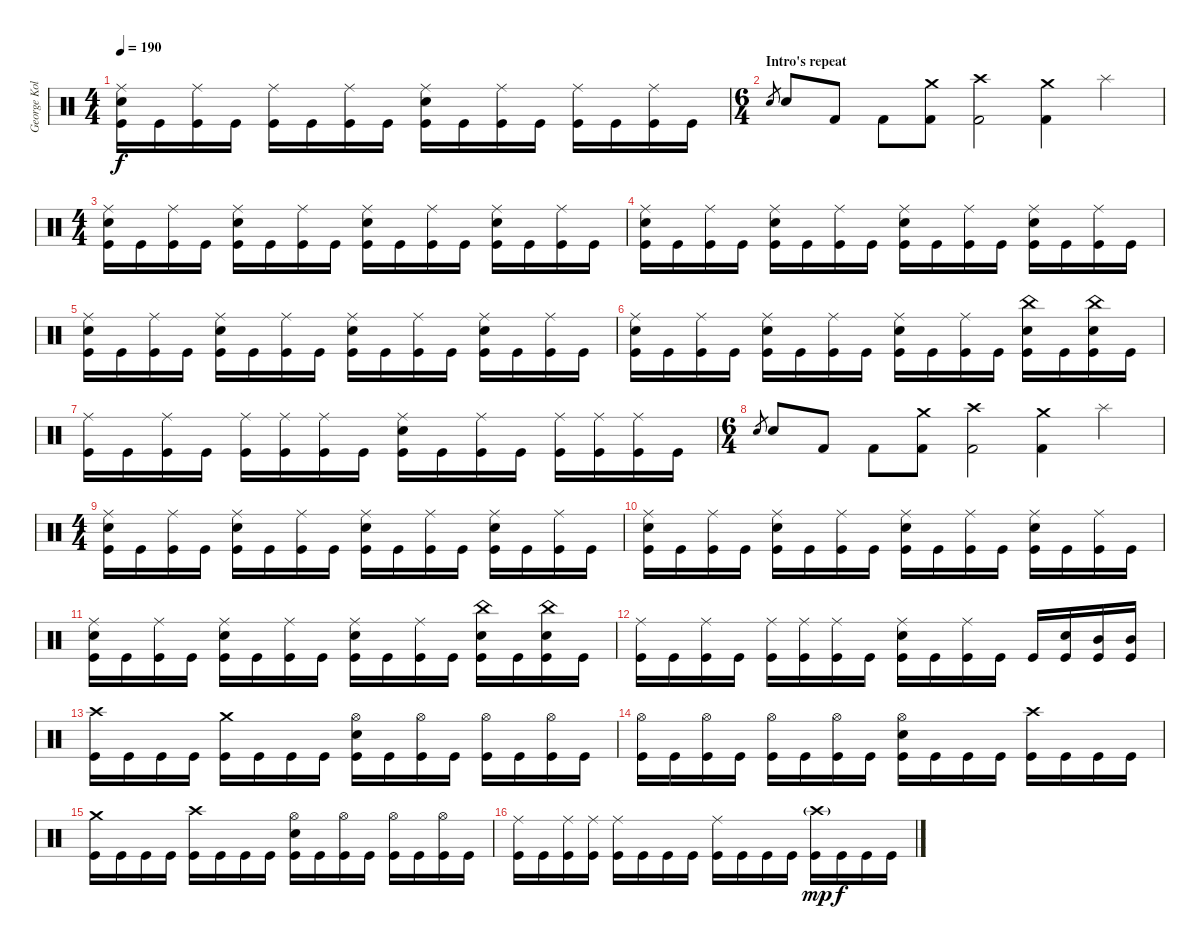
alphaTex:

\track ("George Kollias" "George Kol") {instrument percussion}
\staff {score}
\articulation defaults
\ts (4 4)
\tempo 190
\clef neutral
\ks c
("Ride (middle)" "Snare (hit) 2" "Kick (hit)").16{dy f} "Kick (hit)".16 ("Ride (middle)" "Kick (hit)").16 "Kick (hit)".16 ("Ride (middle)" "Kick (hit)").16 "Kick (hit)".16 ("Ride (middle)" "Kick (hit)").16 "Kick (hit)".16 ("Ride (middle)" "Snare (hit) 2" "Kick (hit)").16 "Kick (hit)".16 ("Ride (middle)" "Kick (hit)").16 "Kick (hit)".16 ("Ride (middle)" "Kick (hit)").16 "Kick (hit)".16 ("Ride (middle)" "Kick (hit)").16 "Kick (hit)".16 |
\ts (6 4)
\section ("" "Intro's repeat")
"Snare (hit) 2".8{gr} "Snare (hit) 2".8 "Kick (hit) 2".8 "Kick (hit) 2".8 ("Crash medium (hit)" "Kick (hit) 2").8 ("Crash high (hit)" "Kick (hit) 2").2 ("Crash medium (hit)" "Kick (hit) 2").4 "Splash (hit)".4 |
\ts (4 4)
("Ride (middle)" "Snare (hit) 2" "Kick (hit)").16 "Kick (hit)".16 ("Ride (middle)" "Kick (hit)").16 "Kick (hit)".16 ("Ride (middle)" "Snare (hit) 2" "Kick (hit)").16 "Kick (hit)".16 ("Ride (middle)" "Kick (hit)").16 "Kick (hit)".16 ("Ride (middle)" "Snare (hit) 2" "Kick (hit)").16 "Kick (hit)".16 ("Ride (middle)" "Kick (hit)").16 "Kick (hit)".16 ("Ride (middle)" "Snare (hit) 2" "Kick (hit)").16 "Kick (hit)".16 ("Ride (middle)" "Kick (hit)").16 "Kick (hit)".16 |
("Ride (middle)" "Snare (hit) 2" "Kick (hit)").16 "Kick (hit)".16 ("Ride (middle)" "Kick (hit)").16 "Kick (hit)".16 ("Ride (middle)" "Snare (hit) 2" "Kick (hit)").16 "Kick (hit)".16 ("Ride (middle)" "Kick (hit)").16 "Kick (hit)".16 ("Ride (middle)" "Snare (hit) 2" "Kick (hit)").16 "Kick (hit)".16 ("Ride (middle)" "Kick (hit)").16 "Kick (hit)".16 ("Ride (middle)" "Snare (hit) 2" "Kick (hit)").16 "Kick (hit)".16 ("Ride (middle)" "Kick (hit)").16 "Kick (hit)".16 |
("Ride (middle)" "Snare (hit) 2" "Kick (hit)").16 "Kick (hit)".16 ("Ride (middle)" "Kick (hit)").16 "Kick (hit)".16 ("Ride (middle)" "Snare (hit) 2" "Kick (hit)").16 "Kick (hit)".16 ("Ride (middle)" "Kick (hit)").16 "Kick (hit)".16 ("Ride (middle)" "Snare (hit) 2" "Kick (hit)").16 "Kick (hit)".16 ("Ride (middle)" "Kick (hit)").16 "Kick (hit)".16 ("Ride (middle)" "Snare (hit) 2" "Kick (hit)").16 "Kick (hit)".16 ("Ride (middle)" "Kick (hit)").16 "Kick (hit)".16 |
("Ride (middle)" "Snare (hit) 2" "Kick (hit)").16 "Kick (hit)".16 ("Ride (middle)" "Kick (hit)").16 "Kick (hit)".16 ("Ride (middle)" "Snare (hit) 2" "Kick (hit)").16 "Kick (hit)".16 ("Ride (middle)" "Kick (hit)").16 "Kick (hit)".16 ("Ride (middle)" "Snare (hit) 2" "Kick (hit)").16 "Kick (hit)".16 ("Ride (middle)" "Kick (hit)").16 "Kick (hit)".16 ("China (hit)" "Snare (hit) 2" "Kick (hit)").16 "Kick (hit)".16 ("China (hit)" "Snare (hit) 2" "Kick (hit)").16 "Kick (hit)".16 |
("Ride (middle)" "Kick (hit)").16 "Kick (hit)".16 ("Ride (middle)" "Kick (hit)").16 "Kick (hit)".16 ("Ride (middle)" "Kick (hit)").16 ("Ride (middle)" "Kick (hit)").16 ("Ride (middle)" "Kick (hit)").16 "Kick (hit)".16 ("Ride (middle)" "Snare (hit) 2" "Kick (hit)").16 "Kick (hit)".16 ("Ride (middle)" "Kick (hit)").16 "Kick (hit)".16 ("Ride (middle)" "Kick (hit)").16 ("Ride (middle)" "Kick (hit)").16 ("Ride (middle)" "Kick (hit)").16 "Kick (hit)".16 |
\ts (6 4)
"Snare (hit) 2".8{gr} "Snare (hit) 2".8 "Kick (hit) 2".8 "Kick (hit) 2".8 ("Crash medium (hit)" "Kick (hit) 2").8 ("Crash high (hit)" "Kick (hit) 2").2 ("Crash medium (hit)" "Kick (hit) 2").4 "Splash (hit)".4 |
\ts (4 4)
("Ride (middle)" "Snare (hit) 2" "Kick (hit)").16 "Kick (hit)".16 ("Ride (middle)" "Kick (hit)").16 "Kick (hit)".16 ("Ride (middle)" "Snare (hit) 2" "Kick (hit)").16 "Kick (hit)".16 ("Ride (middle)" "Kick (hit)").16 "Kick (hit)".16 ("Ride (middle)" "Snare (hit) 2" "Kick (hit)").16 "Kick (hit)".16 ("Ride (middle)" "Kick (hit)").16 "Kick (hit)".16 ("Ride (middle)" "Snare (hit) 2" "Kick (hit)").16 "Kick (hit)".16 ("Ride (middle)" "Kick (hit)").16 "Kick (hit)".16 |
("Ride (middle)" "Snare (hit) 2" "Kick (hit)").16 "Kick (hit)".16 ("Ride (middle)" "Kick (hit)").16 "Kick (hit)".16 ("Ride (middle)" "Snare (hit) 2" "Kick (hit)").16 "Kick (hit)".16 ("Ride (middle)" "Kick (hit)").16 "Kick (hit)".16 ("Ride (middle)" "Snare (hit) 2" "Kick (hit)").16 "Kick (hit)".16 ("Ride (middle)" "Kick (hit)").16 "Kick (hit)".16 ("Ride (middle)" "Snare (hit) 2" "Kick (hit)").16 "Kick (hit)".16 ("Ride (middle)" "Kick (hit)").16 "Kick (hit)".16 |
("Ride (middle)" "Snare (hit) 2" "Kick (hit)").16 "Kick (hit)".16 ("Ride (middle)" "Kick (hit)").16 "Kick (hit)".16 ("Ride (middle)" "Snare (hit) 2" "Kick (hit)").16 "Kick (hit)".16 ("Ride (middle)" "Kick (hit)").16 "Kick (hit)".16 ("Ride (middle)" "Snare (hit) 2" "Kick (hit)").16 "Kick (hit)".16 ("Ride (middle)" "Kick (hit)").16 "Kick (hit)".16 ("China (hit)" "Snare (hit) 2" "Kick (hit)").16 "Kick (hit)".16 ("China (hit)" "Snare (hit) 2" "Kick (hit)").16 "Kick (hit)".16 |
("Ride (middle)" "Kick (hit)").16 "Kick (hit)".16 ("Ride (middle)" "Kick (hit)").16 "Kick (hit)".16 ("Ride (middle)" "Kick (hit)").16 ("Ride (middle)" "Kick (hit)").16 ("Ride (middle)" "Kick (hit)").16 "Kick (hit)".16 ("Ride (middle)" "Snare (hit) 2" "Kick (hit)").16 "Kick (hit)".16 ("Ride (middle)" "Kick (hit)").16 "Kick (hit)".16 "Kick (hit)".16 ("Snare (hit) 2" "Kick (hit)").16 ("Mid Tom (hit)" "Kick (hit)").16 ("Mid Tom (hit)" "Kick (hit)").16 |
("Crash high (hit)" "Kick (hit)").16 "Kick (hit)".16 "Kick (hit)".16 "Kick (hit)".16 ("Crash medium (hit)" "Kick (hit)").16 "Kick (hit)".16 "Kick (hit)".16 "Kick (hit)".16 ("Hi-Hat (open)" "Snare (hit) 2" "Kick (hit)").16 "Kick (hit)".16 ("Hi-Hat (open)" "Kick (hit)").16 "Kick (hit)".16 ("Hi-Hat (open)" "Kick (hit)").16 "Kick (hit)".16 ("Hi-Hat (open)" "Kick (hit)").16 "Kick (hit)".16 |
("Hi-Hat (open)" "Kick (hit)").16 "Kick (hit)".16 ("Hi-Hat (open)" "Kick (hit)").16 "Kick (hit)".16 ("Hi-Hat (open)" "Kick (hit)").16 "Kick (hit)".16 ("Hi-Hat (open)" "Kick (hit)").16 "Kick (hit)".16 ("Hi-Hat (open)" "Snare (hit) 2" "Kick (hit)").16 "Kick (hit)".16 "Kick (hit)".16 "Kick (hit)".16 ("Crash high (hit)" "Kick (hit)").16 "Kick (hit)".16 "Kick (hit)".16 "Kick (hit)".16 |
("Crash medium (hit)" "Kick (hit)").16 "Kick (hit)".16 "Kick (hit)".16 "Kick (hit)".16 ("Crash high (hit)" "Kick (hit)").16 "Kick (hit)".16 "Kick (hit)".16 "Kick (hit)".16 ("Hi-Hat (open)" "Snare (hit) 2" "Kick (hit)").16 "Kick (hit)".16 ("Hi-Hat (open)" "Kick (hit)").16 "Kick (hit)".16 ("Hi-Hat (open)" "Kick (hit)").16 "Kick (hit)".16 ("Hi-Hat (open)" "Kick (hit)").16 "Kick (hit)".16 |
("Ride (middle)" "Kick (hit)").16 "Kick (hit)".16 ("Ride (middle)" "Kick (hit)").16 ("Ride (middle)" "Kick (hit)").16 ("Ride (middle)" "Kick (hit)").16 "Kick (hit)".16 "Kick (hit)".16 "Kick (hit)".16 ("Ride (middle)" "Kick (hit)").16 "Kick (hit)".16 "Kick (hit)".16 "Kick (hit)".16 ("Crash high (hit)"{g} "Kick (hit)").16{dy mp} "Kick (hit)".16{dy f} "Kick (hit)".16 "Kick (hit)".16
